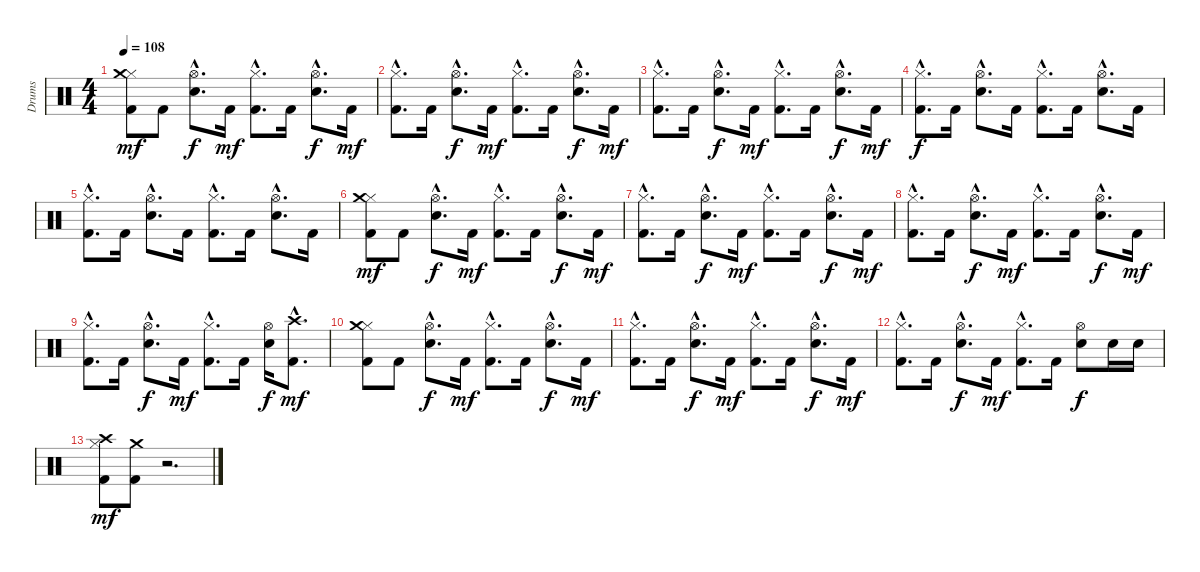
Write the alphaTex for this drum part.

\track ("Drums" "Drums") {instrument percussion}
\staff {score}
\articulation defaults
\ts (4 4)
\tempo 108
\clef neutral
\ks c
("Kick (hit) 2" "Hi-Hat (closed)" "Crash medium (hit)").8{dy mf} "Kick (hit) 2".8 ("Snare (hit) 2"{hac} "Hi-Hat (open)"{hac}).8{d dy f} "Kick (hit) 2".16{dy mf} ("Kick (hit) 2"{hac} "Hi-Hat (closed)"{hac}).8{d} "Kick (hit) 2".16 ("Snare (hit) 2"{hac} "Hi-Hat (open)"{hac}).8{d dy f} "Kick (hit) 2".16{dy mf} |
("Kick (hit) 2"{hac} "Hi-Hat (closed)"{hac}).8{d} "Kick (hit) 2".16 ("Snare (hit) 2"{hac} "Hi-Hat (open)"{hac}).8{d dy f} "Kick (hit) 2".16{dy mf} ("Kick (hit) 2"{hac} "Hi-Hat (closed)"{hac}).8{d} "Kick (hit) 2".16 ("Snare (hit) 2"{hac} "Hi-Hat (open)"{hac}).8{d dy f} "Kick (hit) 2".16{dy mf} |
("Kick (hit) 2"{hac} "Hi-Hat (closed)"{hac}).8{d} "Kick (hit) 2".16 ("Snare (hit) 2"{hac} "Hi-Hat (open)"{hac}).8{d dy f} "Kick (hit) 2".16{dy mf} ("Kick (hit) 2"{hac} "Hi-Hat (closed)"{hac}).8{d} "Kick (hit) 2".16 ("Snare (hit) 2"{hac} "Hi-Hat (open)"{hac}).8{d dy f} "Kick (hit) 2".16{dy mf} |
("Kick (hit) 2"{hac} "Hi-Hat (closed)"{hac}).8{d dy f} "Kick (hit) 2".16 ("Snare (hit) 2"{hac} "Hi-Hat (open)"{hac}).8{d} "Kick (hit) 2".16 ("Kick (hit) 2"{hac} "Hi-Hat (closed)"{hac}).8{d} "Kick (hit) 2".16 ("Snare (hit) 2"{hac} "Hi-Hat (open)"{hac}).8{d} "Kick (hit) 2".16 |
("Kick (hit) 2"{hac} "Hi-Hat (closed)"{hac}).8{d} "Kick (hit) 2".16 ("Snare (hit) 2"{hac} "Hi-Hat (open)"{hac}).8{d} "Kick (hit) 2".16 ("Kick (hit) 2"{hac} "Hi-Hat (closed)"{hac}).8{d} "Kick (hit) 2".16 ("Snare (hit) 2"{hac} "Hi-Hat (open)"{hac}).8{d} "Kick (hit) 2".16 |
("Kick (hit) 2" "Hi-Hat (closed)" "Crash medium (hit)").8{dy mf} "Kick (hit) 2".8 ("Snare (hit) 2"{hac} "Hi-Hat (open)"{hac}).8{d dy f} "Kick (hit) 2".16{dy mf} ("Kick (hit) 2"{hac} "Hi-Hat (closed)"{hac}).8{d} "Kick (hit) 2".16 ("Snare (hit) 2"{hac} "Hi-Hat (open)"{hac}).8{d dy f} "Kick (hit) 2".16{dy mf} |
("Kick (hit) 2"{hac} "Hi-Hat (closed)"{hac}).8{d} "Kick (hit) 2".16 ("Snare (hit) 2"{hac} "Hi-Hat (open)"{hac}).8{d dy f} "Kick (hit) 2".16{dy mf} ("Kick (hit) 2"{hac} "Hi-Hat (closed)"{hac}).8{d} "Kick (hit) 2".16 ("Snare (hit) 2"{hac} "Hi-Hat (open)"{hac}).8{d dy f} "Kick (hit) 2".16{dy mf} |
("Kick (hit) 2"{hac} "Hi-Hat (closed)"{hac}).8{d} "Kick (hit) 2".16 ("Snare (hit) 2"{hac} "Hi-Hat (open)"{hac}).8{d dy f} "Kick (hit) 2".16{dy mf} ("Kick (hit) 2"{hac} "Hi-Hat (closed)"{hac}).8{d} "Kick (hit) 2".16 ("Snare (hit) 2"{hac} "Hi-Hat (open)"{hac}).8{d dy f} "Kick (hit) 2".16{dy mf} |
("Kick (hit) 2"{hac} "Hi-Hat (closed)"{hac}).8{d} "Kick (hit) 2".16 ("Snare (hit) 2"{hac} "Hi-Hat (open)"{hac}).8{d dy f} "Kick (hit) 2".16{dy mf} ("Kick (hit) 2"{hac} "Hi-Hat (closed)"{hac}).8{d} "Kick (hit) 2".16 ("Snare (hit) 2" "Hi-Hat (open)").16{dy f} ("Kick (hit) 2"{hac} "Crash high (hit)"{hac}).8{d dy mf} |
("Kick (hit) 2" "Hi-Hat (closed)" "Crash medium (hit)").8 "Kick (hit) 2".8 ("Snare (hit) 2"{hac} "Hi-Hat (open)"{hac}).8{d dy f} "Kick (hit) 2".16{dy mf} ("Kick (hit) 2"{hac} "Hi-Hat (closed)"{hac}).8{d} "Kick (hit) 2".16 ("Snare (hit) 2"{hac} "Hi-Hat (open)"{hac}).8{d dy f} "Kick (hit) 2".16{dy mf} |
("Kick (hit) 2"{hac} "Hi-Hat (closed)"{hac}).8{d} "Kick (hit) 2".16 ("Snare (hit) 2"{hac} "Hi-Hat (open)"{hac}).8{d dy f} "Kick (hit) 2".16{dy mf} ("Kick (hit) 2"{hac} "Hi-Hat (closed)"{hac}).8{d} "Kick (hit) 2".16 ("Snare (hit) 2"{hac} "Hi-Hat (open)"{hac}).8{d dy f} "Kick (hit) 2".16{dy mf} |
("Kick (hit) 2"{hac} "Hi-Hat (closed)"{hac}).8{d} "Kick (hit) 2".16 ("Snare (hit) 2"{hac} "Hi-Hat (open)"{hac}).8{d dy f} "Kick (hit) 2".16{dy mf} ("Kick (hit) 2"{hac} "Hi-Hat (closed)"{hac}).8{d} "Kick (hit) 2".16 ("Snare (hit) 2" "Hi-Hat (open)").8{dy f} "Snare (hit) 2".16 "Snare (hit) 2".16 |
("Kick (hit) 2" "Hi-Hat (closed)" "Crash high (hit)").8{dy mf} ("Kick (hit) 2" "Crash medium (hit)").8 r.2{d}
